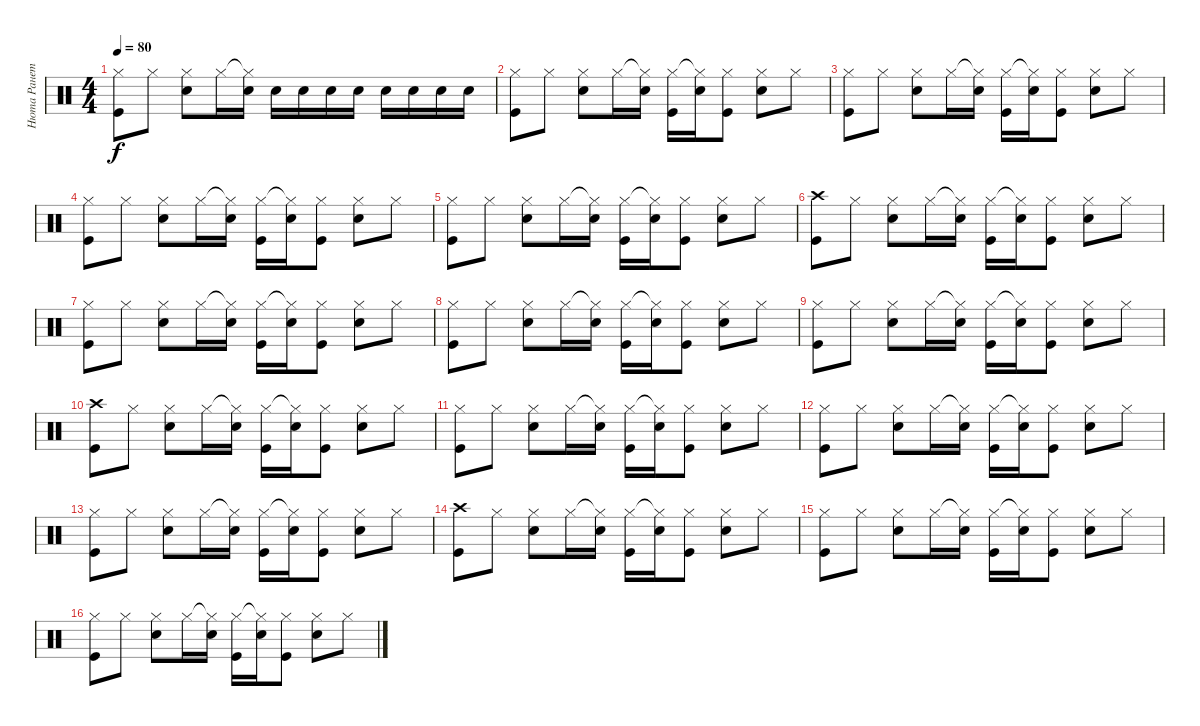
\track ("Нюта Ранетка" "Нюта Ранет") {instrument percussion}
\staff {score}
\articulation defaults
\ts (4 4)
\tempo 80
\clef neutral
\ks c
("Hi-Hat (closed)" "Kick (hit)").8{dy f} "Hi-Hat (closed)".8 ("Hi-Hat (closed)" "Electric Snare (hit)").8 "Hi-Hat (closed)".16 ("Hi-Hat (closed)"{t} "Electric Snare (hit)").16 "Electric Snare (hit)".16 "Electric Snare (hit)".16 "Electric Snare (hit)".16 "Electric Snare (hit)".16 "Electric Snare (hit)".16 "Electric Snare (hit)".16 "Electric Snare (hit)".16 "Electric Snare (hit)".16 |
("Hi-Hat (closed)" "Kick (hit)").8 "Hi-Hat (closed)".8 ("Hi-Hat (closed)" "Electric Snare (hit)").8 "Hi-Hat (closed)".16 ("Hi-Hat (closed)"{t} "Electric Snare (hit)").16 ("Hi-Hat (closed)" "Kick (hit)").16 ("Hi-Hat (closed)"{t} "Electric Snare (hit)").16 ("Hi-Hat (closed)" "Kick (hit)").8 ("Hi-Hat (closed)" "Electric Snare (hit)").8 "Hi-Hat (closed)".8 |
("Hi-Hat (closed)" "Kick (hit)").8 "Hi-Hat (closed)".8 ("Hi-Hat (closed)" "Electric Snare (hit)").8 "Hi-Hat (closed)".16 ("Hi-Hat (closed)"{t} "Electric Snare (hit)").16 ("Hi-Hat (closed)" "Kick (hit)").16 ("Hi-Hat (closed)"{t} "Electric Snare (hit)").16 ("Hi-Hat (closed)" "Kick (hit)").8 ("Hi-Hat (closed)" "Electric Snare (hit)").8 "Hi-Hat (closed)".8 |
("Hi-Hat (closed)" "Kick (hit)").8 "Hi-Hat (closed)".8 ("Hi-Hat (closed)" "Electric Snare (hit)").8 "Hi-Hat (closed)".16 ("Hi-Hat (closed)"{t} "Electric Snare (hit)").16 ("Hi-Hat (closed)" "Kick (hit)").16 ("Hi-Hat (closed)"{t} "Electric Snare (hit)").16 ("Hi-Hat (closed)" "Kick (hit)").8 ("Hi-Hat (closed)" "Electric Snare (hit)").8 "Hi-Hat (closed)".8 |
("Hi-Hat (closed)" "Kick (hit)").8 "Hi-Hat (closed)".8 ("Hi-Hat (closed)" "Electric Snare (hit)").8 "Hi-Hat (closed)".16 ("Hi-Hat (closed)"{t} "Electric Snare (hit)").16 ("Hi-Hat (closed)" "Kick (hit)").16 ("Hi-Hat (closed)"{t} "Electric Snare (hit)").16 ("Hi-Hat (closed)" "Kick (hit)").8 ("Hi-Hat (closed)" "Electric Snare (hit)").8 "Hi-Hat (closed)".8 |
("Crash high (hit)" "Kick (hit)").8 "Hi-Hat (closed)".8 ("Hi-Hat (closed)" "Electric Snare (hit)").8 "Hi-Hat (closed)".16 ("Hi-Hat (closed)"{t} "Electric Snare (hit)").16 ("Hi-Hat (closed)" "Kick (hit)").16 ("Hi-Hat (closed)"{t} "Electric Snare (hit)").16 ("Hi-Hat (closed)" "Kick (hit)").8 ("Hi-Hat (closed)" "Electric Snare (hit)").8 "Hi-Hat (closed)".8 |
("Hi-Hat (closed)" "Kick (hit)").8 "Hi-Hat (closed)".8 ("Hi-Hat (closed)" "Electric Snare (hit)").8 "Hi-Hat (closed)".16 ("Hi-Hat (closed)"{t} "Electric Snare (hit)").16 ("Hi-Hat (closed)" "Kick (hit)").16 ("Hi-Hat (closed)"{t} "Electric Snare (hit)").16 ("Hi-Hat (closed)" "Kick (hit)").8 ("Hi-Hat (closed)" "Electric Snare (hit)").8 "Hi-Hat (closed)".8 |
("Hi-Hat (closed)" "Kick (hit)").8 "Hi-Hat (closed)".8 ("Hi-Hat (closed)" "Electric Snare (hit)").8 "Hi-Hat (closed)".16 ("Hi-Hat (closed)"{t} "Electric Snare (hit)").16 ("Hi-Hat (closed)" "Kick (hit)").16 ("Hi-Hat (closed)"{t} "Electric Snare (hit)").16 ("Hi-Hat (closed)" "Kick (hit)").8 ("Hi-Hat (closed)" "Electric Snare (hit)").8 "Hi-Hat (closed)".8 |
("Hi-Hat (closed)" "Kick (hit)").8 "Hi-Hat (closed)".8 ("Hi-Hat (closed)" "Electric Snare (hit)").8 "Hi-Hat (closed)".16 ("Hi-Hat (closed)"{t} "Electric Snare (hit)").16 ("Hi-Hat (closed)" "Kick (hit)").16 ("Hi-Hat (closed)"{t} "Electric Snare (hit)").16 ("Hi-Hat (closed)" "Kick (hit)").8 ("Hi-Hat (closed)" "Electric Snare (hit)").8 "Hi-Hat (closed)".8 |
("Crash high (hit)" "Kick (hit)").8 "Hi-Hat (closed)".8 ("Hi-Hat (closed)" "Electric Snare (hit)").8 "Hi-Hat (closed)".16 ("Hi-Hat (closed)"{t} "Electric Snare (hit)").16 ("Hi-Hat (closed)" "Kick (hit)").16 ("Hi-Hat (closed)"{t} "Electric Snare (hit)").16 ("Hi-Hat (closed)" "Kick (hit)").8 ("Hi-Hat (closed)" "Electric Snare (hit)").8 "Hi-Hat (closed)".8 |
("Hi-Hat (closed)" "Kick (hit)").8 "Hi-Hat (closed)".8 ("Hi-Hat (closed)" "Electric Snare (hit)").8 "Hi-Hat (closed)".16 ("Hi-Hat (closed)"{t} "Electric Snare (hit)").16 ("Hi-Hat (closed)" "Kick (hit)").16 ("Hi-Hat (closed)"{t} "Electric Snare (hit)").16 ("Hi-Hat (closed)" "Kick (hit)").8 ("Hi-Hat (closed)" "Electric Snare (hit)").8 "Hi-Hat (closed)".8 |
("Hi-Hat (closed)" "Kick (hit)").8 "Hi-Hat (closed)".8 ("Hi-Hat (closed)" "Electric Snare (hit)").8 "Hi-Hat (closed)".16 ("Hi-Hat (closed)"{t} "Electric Snare (hit)").16 ("Hi-Hat (closed)" "Kick (hit)").16 ("Hi-Hat (closed)"{t} "Electric Snare (hit)").16 ("Hi-Hat (closed)" "Kick (hit)").8 ("Hi-Hat (closed)" "Electric Snare (hit)").8 "Hi-Hat (closed)".8 |
("Hi-Hat (closed)" "Kick (hit)").8 "Hi-Hat (closed)".8 ("Hi-Hat (closed)" "Electric Snare (hit)").8 "Hi-Hat (closed)".16 ("Hi-Hat (closed)"{t} "Electric Snare (hit)").16 ("Hi-Hat (closed)" "Kick (hit)").16 ("Hi-Hat (closed)"{t} "Electric Snare (hit)").16 ("Hi-Hat (closed)" "Kick (hit)").8 ("Hi-Hat (closed)" "Electric Snare (hit)").8 "Hi-Hat (closed)".8 |
("Crash high (hit)" "Kick (hit)").8 "Hi-Hat (closed)".8 ("Hi-Hat (closed)" "Electric Snare (hit)").8 "Hi-Hat (closed)".16 ("Hi-Hat (closed)"{t} "Electric Snare (hit)").16 ("Hi-Hat (closed)" "Kick (hit)").16 ("Hi-Hat (closed)"{t} "Electric Snare (hit)").16 ("Hi-Hat (closed)" "Kick (hit)").8 ("Hi-Hat (closed)" "Electric Snare (hit)").8 "Hi-Hat (closed)".8 |
("Hi-Hat (closed)" "Kick (hit)").8 "Hi-Hat (closed)".8 ("Hi-Hat (closed)" "Electric Snare (hit)").8 "Hi-Hat (closed)".16 ("Hi-Hat (closed)"{t} "Electric Snare (hit)").16 ("Hi-Hat (closed)" "Kick (hit)").16 ("Hi-Hat (closed)"{t} "Electric Snare (hit)").16 ("Hi-Hat (closed)" "Kick (hit)").8 ("Hi-Hat (closed)" "Electric Snare (hit)").8 "Hi-Hat (closed)".8 |
("Hi-Hat (closed)" "Kick (hit)").8 "Hi-Hat (closed)".8 ("Hi-Hat (closed)" "Electric Snare (hit)").8 "Hi-Hat (closed)".16 ("Hi-Hat (closed)"{t} "Electric Snare (hit)").16 ("Hi-Hat (closed)" "Kick (hit)").16 ("Hi-Hat (closed)"{t} "Electric Snare (hit)").16 ("Hi-Hat (closed)" "Kick (hit)").8 ("Hi-Hat (closed)" "Electric Snare (hit)").8 "Hi-Hat (closed)".8
